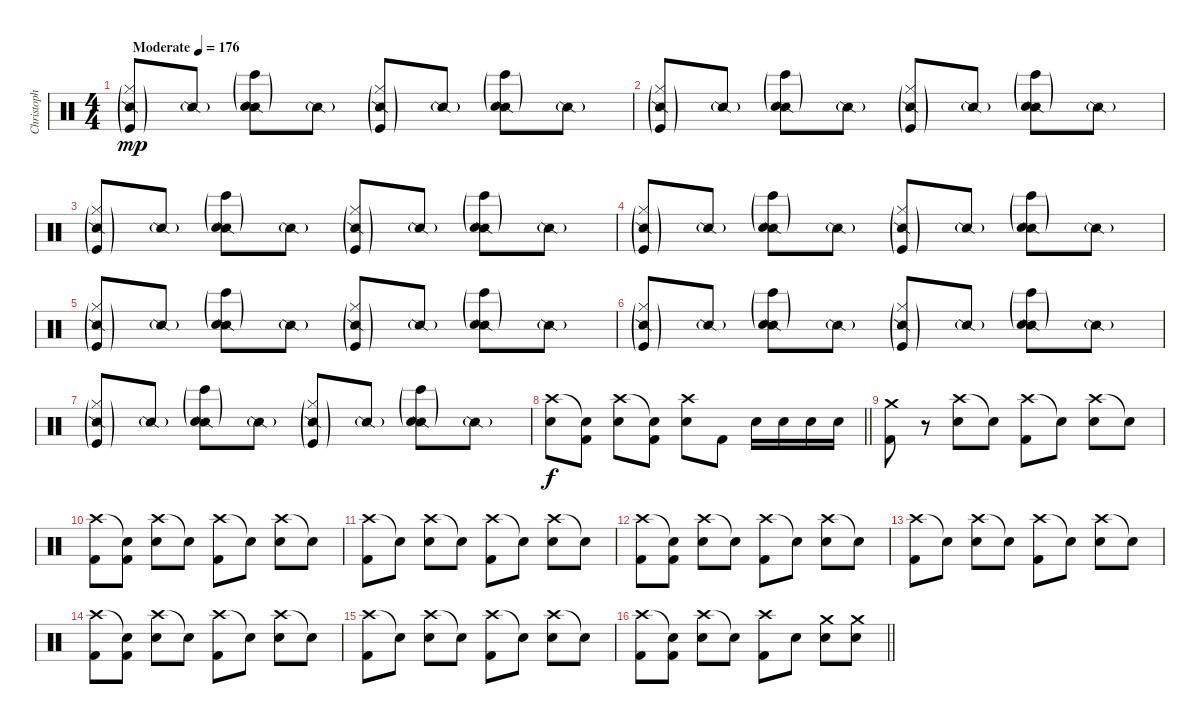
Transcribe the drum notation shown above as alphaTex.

\track ("Christoph" "Christoph") {instrument percussion}
\staff {score}
\articulation defaults
\ts (4 4)
\tempo (176 "Moderate")
\clef neutral
\ks c
("Snare (side stick) 2"{g} "Hi-Hat (closed)"{g} "Kick (hit)"{g}).8{dy mp} "Snare (side stick) 2"{g}.8 ("Bongo High (hit)"{g} "Snare (side stick) 2"{g} "Electric Snare (hit)"{g}).8 "Snare (side stick) 2"{g}.8 ("Snare (side stick) 2"{g} "Hi-Hat (closed)"{g} "Kick (hit)"{g}).8 "Snare (side stick) 2"{g}.8 ("Bongo High (hit)"{g} "Snare (side stick) 2"{g} "Electric Snare (hit)"{g}).8 "Snare (side stick) 2"{g}.8 |
("Snare (side stick) 2"{g} "Hi-Hat (closed)"{g} "Kick (hit)"{g}).8 "Snare (side stick) 2"{g}.8 ("Bongo High (hit)"{g} "Snare (side stick) 2"{g} "Electric Snare (hit)"{g}).8 "Snare (side stick) 2"{g}.8 ("Snare (side stick) 2"{g} "Hi-Hat (closed)"{g} "Kick (hit)"{g}).8 "Snare (side stick) 2"{g}.8 ("Bongo High (hit)"{g} "Snare (side stick) 2"{g} "Electric Snare (hit)"{g}).8 "Snare (side stick) 2"{g}.8 |
("Snare (side stick) 2"{g} "Hi-Hat (closed)"{g} "Kick (hit)"{g}).8 "Snare (side stick) 2"{g}.8 ("Bongo High (hit)"{g} "Snare (side stick) 2"{g} "Electric Snare (hit)"{g}).8 "Snare (side stick) 2"{g}.8 ("Snare (side stick) 2"{g} "Hi-Hat (closed)"{g} "Kick (hit)"{g}).8 "Snare (side stick) 2"{g}.8 ("Bongo High (hit)"{g} "Snare (side stick) 2"{g} "Electric Snare (hit)"{g}).8 "Snare (side stick) 2"{g}.8 |
("Snare (side stick) 2"{g} "Hi-Hat (closed)"{g} "Kick (hit)"{g}).8 "Snare (side stick) 2"{g}.8 ("Bongo High (hit)"{g} "Snare (side stick) 2"{g} "Electric Snare (hit)"{g}).8 "Snare (side stick) 2"{g}.8 ("Snare (side stick) 2"{g} "Hi-Hat (closed)"{g} "Kick (hit)"{g}).8 "Snare (side stick) 2"{g}.8 ("Bongo High (hit)"{g} "Snare (side stick) 2"{g} "Electric Snare (hit)"{g}).8 "Snare (side stick) 2"{g}.8 |
("Snare (side stick) 2"{g} "Hi-Hat (closed)"{g} "Kick (hit)"{g}).8 "Snare (side stick) 2"{g}.8 ("Bongo High (hit)"{g} "Snare (side stick) 2"{g} "Electric Snare (hit)"{g}).8 "Snare (side stick) 2"{g}.8 ("Snare (side stick) 2"{g} "Hi-Hat (closed)"{g} "Kick (hit)"{g}).8 "Snare (side stick) 2"{g}.8 ("Bongo High (hit)"{g} "Snare (side stick) 2"{g} "Electric Snare (hit)"{g}).8 "Snare (side stick) 2"{g}.8 |
("Snare (side stick) 2"{g} "Hi-Hat (closed)"{g} "Kick (hit)"{g}).8 "Snare (side stick) 2"{g}.8 ("Bongo High (hit)"{g} "Snare (side stick) 2"{g} "Electric Snare (hit)"{g}).8 "Snare (side stick) 2"{g}.8 ("Snare (side stick) 2"{g} "Hi-Hat (closed)"{g} "Kick (hit)"{g}).8 "Snare (side stick) 2"{g}.8 ("Bongo High (hit)"{g} "Snare (side stick) 2"{g} "Electric Snare (hit)"{g}).8 "Snare (side stick) 2"{g}.8 |
("Snare (side stick) 2"{g} "Hi-Hat (closed)"{g} "Kick (hit)"{g}).8 "Snare (side stick) 2"{g}.8 ("Bongo High (hit)"{g} "Snare (side stick) 2"{g} "Electric Snare (hit)"{g}).8 "Snare (side stick) 2"{g}.8 ("Snare (side stick) 2"{g} "Hi-Hat (closed)"{g} "Kick (hit)"{g}).8 "Snare (side stick) 2"{g}.8 ("Bongo High (hit)"{g} "Snare (side stick) 2"{g} "Electric Snare (hit)"{g}).8 "Snare (side stick) 2"{g}.8 |
\barLineRight lightlight
("Crash high (hit)" "Snare (hit) 2").8{dy f} ("Snare (hit)"{t} "Kick (hit) 2").8 ("Crash high (hit)" "Snare (hit) 2").8 ("Snare (hit)"{t} "Kick (hit) 2").8 ("Crash high (hit)" "Snare (hit) 2").8 "Kick (hit) 2".8 "Snare (hit) 2".16 "Snare (hit) 2".16 "Snare (hit) 2".16 "Snare (hit) 2".16 |
("Crash medium (hit)" "Kick (hit) 2").8 r.8 ("Crash high (hit)" "Snare (hit) 2").8 "Snare (hit)"{t}.8 ("Crash high (hit)" "Kick (hit) 2").8 "Snare (hit)"{t}.8 ("Crash high (hit)" "Snare (hit) 2").8 "Snare (hit)"{t}.8 |
("Crash high (hit)" "Kick (hit) 2").8 ("Snare (hit)"{t} "Kick (hit) 2").8 ("Crash high (hit)" "Snare (hit) 2").8 "Snare (hit)"{t}.8 ("Crash high (hit)" "Kick (hit) 2").8 "Snare (hit)"{t}.8 ("Crash high (hit)" "Snare (hit) 2").8 "Snare (hit)"{t}.8 |
("Crash high (hit)" "Kick (hit) 2").8 "Snare (hit)"{t}.8 ("Crash high (hit)" "Snare (hit) 2").8 "Snare (hit)"{t}.8 ("Crash high (hit)" "Kick (hit) 2").8 "Snare (hit)"{t}.8 ("Crash high (hit)" "Snare (hit) 2").8 "Snare (hit)"{t}.8 |
("Crash high (hit)" "Kick (hit) 2").8 ("Snare (hit)"{t} "Kick (hit) 2").8 ("Crash high (hit)" "Snare (hit) 2").8 "Snare (hit)"{t}.8 ("Crash high (hit)" "Kick (hit) 2").8 "Snare (hit)"{t}.8 ("Crash high (hit)" "Snare (hit) 2").8 "Snare (hit)"{t}.8 |
("Crash high (hit)" "Kick (hit) 2").8 "Snare (hit)"{t}.8 ("Crash high (hit)" "Snare (hit) 2").8 "Snare (hit)"{t}.8 ("Crash high (hit)" "Kick (hit) 2").8 "Snare (hit)"{t}.8 ("Crash high (hit)" "Snare (hit) 2").8 "Snare (hit)"{t}.8 |
("Crash high (hit)" "Kick (hit) 2").8 ("Snare (hit)"{t} "Kick (hit) 2").8 ("Crash high (hit)" "Snare (hit) 2").8 "Snare (hit)"{t}.8 ("Crash high (hit)" "Kick (hit) 2").8 "Snare (hit)"{t}.8 ("Crash high (hit)" "Snare (hit) 2").8 "Snare (hit)"{t}.8 |
("Crash high (hit)" "Kick (hit) 2").8 "Snare (hit)"{t}.8 ("Crash high (hit)" "Snare (hit) 2").8 "Snare (hit)"{t}.8 ("Crash high (hit)" "Kick (hit) 2").8 "Snare (hit)"{t}.8 ("Crash high (hit)" "Snare (hit) 2").8 "Snare (hit)"{t}.8 |
\barLineRight lightlight
("Crash high (hit)" "Kick (hit) 2").8 ("Snare (hit)"{t} "Kick (hit) 2").8 ("Crash high (hit)" "Snare (hit) 2").8 "Snare (hit)"{t}.8 ("Crash high (hit)" "Kick (hit) 2").8 "Snare (hit) 2".8 ("Crash medium (hit)" "Snare (hit) 2").8 ("Crash medium (hit)" "Snare (hit) 2").8
